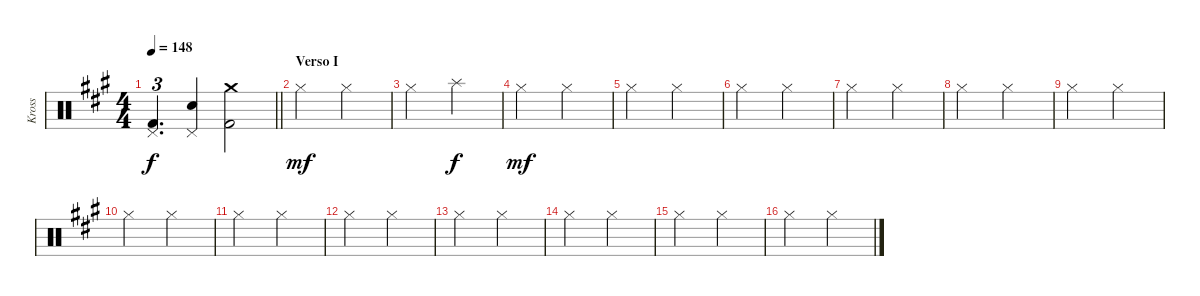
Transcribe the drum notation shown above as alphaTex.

\track ("Kross" "Kross") {instrument percussion}
\staff {score}
\articulation defaults
\ts (4 4)
\tempo 148
\clef neutral
\barLineRight lightlight
\ks a
("Pedal Hi-Hat (hit)" "Kick (hit) 2").4{d tu (3 2) dy f} ("Pedal Hi-Hat (hit)" "Electric Snare (hit)").4 ("Crash medium (hit)" "Kick (hit) 2").2 |
\section ("" "Verso I")
"Hi-Hat (closed)".2{dy mf} "Hi-Hat (closed)".2 |
"Hi-Hat (closed)".2 "Splash (hit)".2{dy f} |
"Hi-Hat (closed)".2{dy mf} "Hi-Hat (closed)".2 |
"Hi-Hat (closed)".2 "Hi-Hat (closed)".2 |
"Hi-Hat (closed)".2 "Hi-Hat (closed)".2 |
"Hi-Hat (closed)".2 "Hi-Hat (closed)".2 |
"Hi-Hat (closed)".2 "Hi-Hat (closed)".2 |
"Hi-Hat (closed)".2 "Hi-Hat (closed)".2 |
"Hi-Hat (closed)".2 "Hi-Hat (closed)".2 |
"Hi-Hat (closed)".2 "Hi-Hat (closed)".2 |
"Hi-Hat (closed)".2 "Hi-Hat (closed)".2 |
"Hi-Hat (closed)".2 "Hi-Hat (closed)".2 |
"Hi-Hat (closed)".2 "Hi-Hat (closed)".2 |
"Hi-Hat (closed)".2 "Hi-Hat (closed)".2 |
"Hi-Hat (closed)".2 "Hi-Hat (closed)".2
